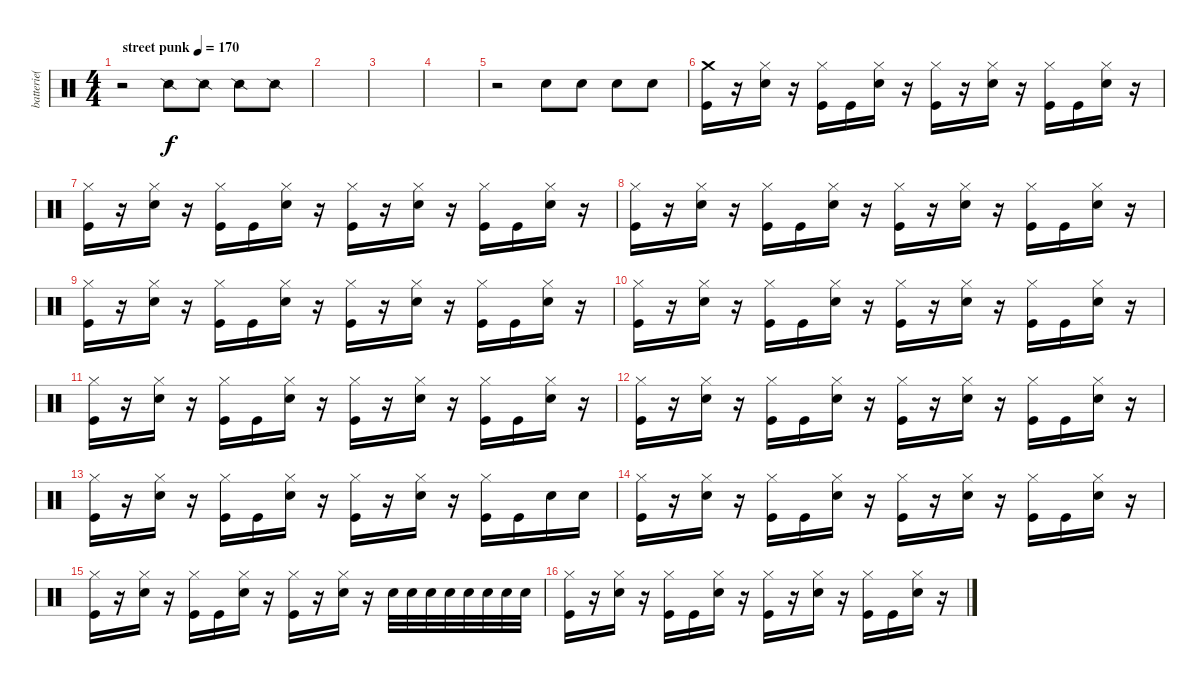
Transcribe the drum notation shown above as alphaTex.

\track ("batterie( Yureesh )" "batterie( ") {instrument percussion}
\staff {score}
\articulation defaults
\ts (4 4)
\tempo (170 "street punk")
\clef neutral
\ks c
r.2{dy f} "Snare (side stick) 2".8 "Snare (side stick) 2".8 "Snare (side stick) 2".8 "Snare (side stick) 2".8 |
|
|
|
r.2 "Snare (hit) 2".8 "Snare (hit) 2".8 "Snare (hit) 2".8 "Snare (hit) 2".8 |
("Crash medium (hit)" "Kick (hit)").16 r.16 ("Hi-Hat (closed)" "Snare (hit) 2").16 r.16 ("Hi-Hat (closed)" "Kick (hit)").16 "Kick (hit)".16 ("Hi-Hat (closed)" "Snare (hit) 2").16 r.16 ("Hi-Hat (closed)" "Kick (hit)").16 r.16 ("Hi-Hat (closed)" "Snare (hit) 2").16 r.16 ("Hi-Hat (closed)" "Kick (hit)").16 "Kick (hit)".16 ("Hi-Hat (closed)" "Snare (hit) 2").16 r.16 |
("Hi-Hat (closed)" "Kick (hit)").16 r.16 ("Hi-Hat (closed)" "Snare (hit) 2").16 r.16 ("Hi-Hat (closed)" "Kick (hit)").16 "Kick (hit)".16 ("Hi-Hat (closed)" "Snare (hit) 2").16 r.16 ("Hi-Hat (closed)" "Kick (hit)").16 r.16 ("Hi-Hat (closed)" "Snare (hit) 2").16 r.16 ("Hi-Hat (closed)" "Kick (hit)").16 "Kick (hit)".16 ("Hi-Hat (closed)" "Snare (hit) 2").16 r.16 |
("Hi-Hat (closed)" "Kick (hit)").16 r.16 ("Hi-Hat (closed)" "Snare (hit) 2").16 r.16 ("Hi-Hat (closed)" "Kick (hit)").16 "Kick (hit)".16 ("Hi-Hat (closed)" "Snare (hit) 2").16 r.16 ("Hi-Hat (closed)" "Kick (hit)").16 r.16 ("Hi-Hat (closed)" "Snare (hit) 2").16 r.16 ("Hi-Hat (closed)" "Kick (hit)").16 "Kick (hit)".16 ("Hi-Hat (closed)" "Snare (hit) 2").16 r.16 |
("Hi-Hat (closed)" "Kick (hit)").16 r.16 ("Hi-Hat (closed)" "Snare (hit) 2").16 r.16 ("Hi-Hat (closed)" "Kick (hit)").16 "Kick (hit)".16 ("Hi-Hat (closed)" "Snare (hit) 2").16 r.16 ("Hi-Hat (closed)" "Kick (hit)").16 r.16 ("Hi-Hat (closed)" "Snare (hit) 2").16 r.16 ("Hi-Hat (closed)" "Kick (hit)").16 "Kick (hit)".16 ("Hi-Hat (closed)" "Snare (hit) 2").16 r.16 |
("Hi-Hat (closed)" "Kick (hit)").16 r.16 ("Hi-Hat (closed)" "Snare (hit) 2").16 r.16 ("Hi-Hat (closed)" "Kick (hit)").16 "Kick (hit)".16 ("Hi-Hat (closed)" "Snare (hit) 2").16 r.16 ("Hi-Hat (closed)" "Kick (hit)").16 r.16 ("Hi-Hat (closed)" "Snare (hit) 2").16 r.16 ("Hi-Hat (closed)" "Kick (hit)").16 "Kick (hit)".16 ("Hi-Hat (closed)" "Snare (hit) 2").16 r.16 |
("Hi-Hat (closed)" "Kick (hit)").16 r.16 ("Hi-Hat (closed)" "Snare (hit) 2").16 r.16 ("Hi-Hat (closed)" "Kick (hit)").16 "Kick (hit)".16 ("Hi-Hat (closed)" "Snare (hit) 2").16 r.16 ("Hi-Hat (closed)" "Kick (hit)").16 r.16 ("Hi-Hat (closed)" "Snare (hit) 2").16 r.16 ("Hi-Hat (closed)" "Kick (hit)").16 "Kick (hit)".16 ("Hi-Hat (closed)" "Snare (hit) 2").16 r.16 |
("Hi-Hat (closed)" "Kick (hit)").16 r.16 ("Hi-Hat (closed)" "Snare (hit) 2").16 r.16 ("Hi-Hat (closed)" "Kick (hit)").16 "Kick (hit)".16 ("Hi-Hat (closed)" "Snare (hit) 2").16 r.16 ("Hi-Hat (closed)" "Kick (hit)").16 r.16 ("Hi-Hat (closed)" "Snare (hit) 2").16 r.16 ("Hi-Hat (closed)" "Kick (hit)").16 "Kick (hit)".16 ("Hi-Hat (closed)" "Snare (hit) 2").16 r.16 |
("Hi-Hat (closed)" "Kick (hit)").16 r.16 ("Hi-Hat (closed)" "Snare (hit) 2").16 r.16 ("Hi-Hat (closed)" "Kick (hit)").16 "Kick (hit)".16 ("Hi-Hat (closed)" "Snare (hit) 2").16 r.16 ("Hi-Hat (closed)" "Kick (hit)").16 r.16 ("Hi-Hat (closed)" "Snare (hit) 2").16 r.16 ("Hi-Hat (closed)" "Kick (hit)").16 "Kick (hit)".16 "Snare (hit) 2".16 "Snare (hit) 2".16 |
("Hi-Hat (closed)" "Kick (hit)").16 r.16 ("Hi-Hat (closed)" "Snare (hit) 2").16 r.16 ("Hi-Hat (closed)" "Kick (hit)").16 "Kick (hit)".16 ("Hi-Hat (closed)" "Snare (hit) 2").16 r.16 ("Hi-Hat (closed)" "Kick (hit)").16 r.16 ("Hi-Hat (closed)" "Snare (hit) 2").16 r.16 ("Hi-Hat (closed)" "Kick (hit)").16 "Kick (hit)".16 ("Hi-Hat (closed)" "Snare (hit) 2").16 r.16 |
("Hi-Hat (closed)" "Kick (hit)").16 r.16 ("Hi-Hat (closed)" "Snare (hit) 2").16 r.16 ("Hi-Hat (closed)" "Kick (hit)").16 "Kick (hit)".16 ("Hi-Hat (closed)" "Snare (hit) 2").16 r.16 ("Hi-Hat (closed)" "Kick (hit)").16 r.16 ("Hi-Hat (closed)" "Snare (hit) 2").16 r.16 "Snare (hit) 2".32 "Snare (hit) 2".32 "Snare (hit) 2".32 "Snare (hit) 2".32 "Snare (hit) 2".32 "Snare (hit) 2".32 "Snare (hit) 2".32 "Snare (hit) 2".32 |
("Hi-Hat (closed)" "Kick (hit)").16 r.16 ("Hi-Hat (closed)" "Snare (hit) 2").16 r.16 ("Hi-Hat (closed)" "Kick (hit)").16 "Kick (hit)".16 ("Hi-Hat (closed)" "Snare (hit) 2").16 r.16 ("Hi-Hat (closed)" "Kick (hit)").16 r.16 ("Hi-Hat (closed)" "Snare (hit) 2").16 r.16 ("Hi-Hat (closed)" "Kick (hit)").16 "Kick (hit)".16 ("Hi-Hat (closed)" "Snare (hit) 2").16 r.16
